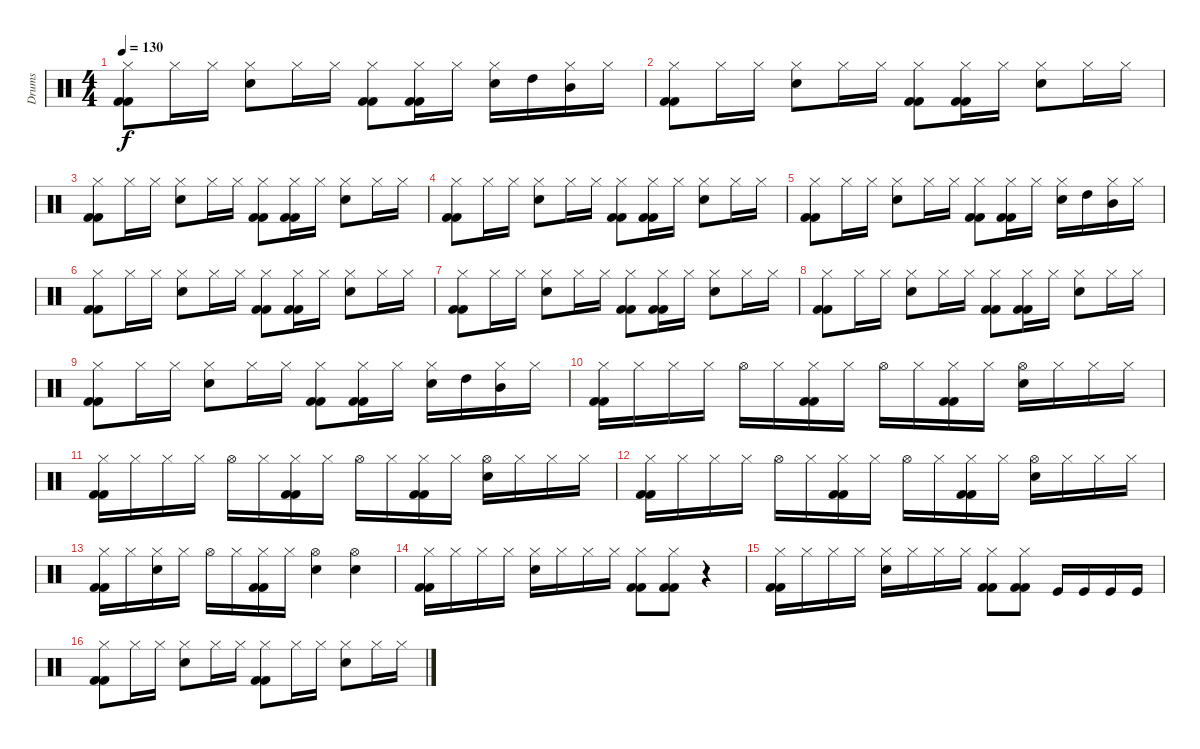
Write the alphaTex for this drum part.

\track ("Drums" "Drums") {instrument percussion}
\staff {score}
\articulation defaults
\ts (4 4)
\tempo 130
\clef neutral
\ks c
("Hi-Hat (closed)" "Kick (hit) 2" "Kick (hit) 2").8{dy f} "Hi-Hat (closed)".16 "Hi-Hat (closed)".16 ("Hi-Hat (closed)" "Electric Snare (hit)").8 "Hi-Hat (closed)".16 "Hi-Hat (closed)".16 ("Hi-Hat (closed)" "Kick (hit) 2" "Kick (hit) 2").8 ("Hi-Hat (closed)" "Kick (hit) 2" "Kick (hit) 2").16 "Hi-Hat (closed)".16 ("Hi-Hat (closed)" "Electric Snare (hit)").16 "High Tom (hit)".16 ("Hi-Hat (closed)" "Mid Tom (hit)").16 "Hi-Hat (closed)".16 |
("Hi-Hat (closed)" "Kick (hit) 2" "Kick (hit) 2").8 "Hi-Hat (closed)".16 "Hi-Hat (closed)".16 ("Hi-Hat (closed)" "Electric Snare (hit)").8 "Hi-Hat (closed)".16 "Hi-Hat (closed)".16 ("Hi-Hat (closed)" "Kick (hit) 2" "Kick (hit) 2").8 ("Hi-Hat (closed)" "Kick (hit) 2" "Kick (hit) 2").16 "Hi-Hat (closed)".16 ("Hi-Hat (closed)" "Electric Snare (hit)").8 "Hi-Hat (closed)".16 "Hi-Hat (closed)".16 |
("Hi-Hat (closed)" "Kick (hit) 2" "Kick (hit) 2").8 "Hi-Hat (closed)".16 "Hi-Hat (closed)".16 ("Hi-Hat (closed)" "Electric Snare (hit)").8 "Hi-Hat (closed)".16 "Hi-Hat (closed)".16 ("Hi-Hat (closed)" "Kick (hit) 2" "Kick (hit) 2").8 ("Hi-Hat (closed)" "Kick (hit) 2" "Kick (hit) 2").16 "Hi-Hat (closed)".16 ("Hi-Hat (closed)" "Electric Snare (hit)").8 "Hi-Hat (closed)".16 "Hi-Hat (closed)".16 |
("Hi-Hat (closed)" "Kick (hit) 2" "Kick (hit) 2").8 "Hi-Hat (closed)".16 "Hi-Hat (closed)".16 ("Hi-Hat (closed)" "Electric Snare (hit)").8 "Hi-Hat (closed)".16 "Hi-Hat (closed)".16 ("Hi-Hat (closed)" "Kick (hit) 2" "Kick (hit) 2").8 ("Hi-Hat (closed)" "Kick (hit) 2" "Kick (hit) 2").16 "Hi-Hat (closed)".16 ("Hi-Hat (closed)" "Electric Snare (hit)").8 "Hi-Hat (closed)".16 "Hi-Hat (closed)".16 |
("Hi-Hat (closed)" "Kick (hit) 2" "Kick (hit) 2").8 "Hi-Hat (closed)".16 "Hi-Hat (closed)".16 ("Hi-Hat (closed)" "Electric Snare (hit)").8 "Hi-Hat (closed)".16 "Hi-Hat (closed)".16 ("Hi-Hat (closed)" "Kick (hit) 2" "Kick (hit) 2").8 ("Hi-Hat (closed)" "Kick (hit) 2" "Kick (hit) 2").16 "Hi-Hat (closed)".16 ("Hi-Hat (closed)" "Electric Snare (hit)").16 "High Tom (hit)".16 ("Hi-Hat (closed)" "Mid Tom (hit)").16 "Hi-Hat (closed)".16 |
("Hi-Hat (closed)" "Kick (hit) 2" "Kick (hit) 2").8 "Hi-Hat (closed)".16 "Hi-Hat (closed)".16 ("Hi-Hat (closed)" "Electric Snare (hit)").8 "Hi-Hat (closed)".16 "Hi-Hat (closed)".16 ("Hi-Hat (closed)" "Kick (hit) 2" "Kick (hit) 2").8 ("Hi-Hat (closed)" "Kick (hit) 2" "Kick (hit) 2").16 "Hi-Hat (closed)".16 ("Hi-Hat (closed)" "Electric Snare (hit)").8 "Hi-Hat (closed)".16 "Hi-Hat (closed)".16 |
("Hi-Hat (closed)" "Kick (hit) 2" "Kick (hit) 2").8 "Hi-Hat (closed)".16 "Hi-Hat (closed)".16 ("Hi-Hat (closed)" "Electric Snare (hit)").8 "Hi-Hat (closed)".16 "Hi-Hat (closed)".16 ("Hi-Hat (closed)" "Kick (hit) 2" "Kick (hit) 2").8 ("Hi-Hat (closed)" "Kick (hit) 2" "Kick (hit) 2").16 "Hi-Hat (closed)".16 ("Hi-Hat (closed)" "Electric Snare (hit)").8 "Hi-Hat (closed)".16 "Hi-Hat (closed)".16 |
("Hi-Hat (closed)" "Kick (hit) 2" "Kick (hit) 2").8 "Hi-Hat (closed)".16 "Hi-Hat (closed)".16 ("Hi-Hat (closed)" "Electric Snare (hit)").8 "Hi-Hat (closed)".16 "Hi-Hat (closed)".16 ("Hi-Hat (closed)" "Kick (hit) 2" "Kick (hit) 2").8 ("Hi-Hat (closed)" "Kick (hit) 2" "Kick (hit) 2").16 "Hi-Hat (closed)".16 ("Hi-Hat (closed)" "Electric Snare (hit)").8 "Hi-Hat (closed)".16 "Hi-Hat (closed)".16 |
("Hi-Hat (closed)" "Kick (hit) 2" "Kick (hit) 2").8 "Hi-Hat (closed)".16 "Hi-Hat (closed)".16 ("Hi-Hat (closed)" "Electric Snare (hit)").8 "Hi-Hat (closed)".16 "Hi-Hat (closed)".16 ("Hi-Hat (closed)" "Kick (hit) 2" "Kick (hit) 2").8 ("Hi-Hat (closed)" "Kick (hit) 2" "Kick (hit) 2").16 "Hi-Hat (closed)".16 ("Hi-Hat (closed)" "Electric Snare (hit)").16 "High Tom (hit)".16 ("Hi-Hat (closed)" "Mid Tom (hit)").16 "Hi-Hat (closed)".16 |
("Hi-Hat (closed)" "Kick (hit) 2" "Kick (hit) 2").16 "Hi-Hat (closed)".16 "Hi-Hat (closed)".16 "Hi-Hat (closed)".16 "Hi-Hat (open)".16 "Hi-Hat (closed)".16 ("Hi-Hat (closed)" "Kick (hit) 2" "Kick (hit) 2").16 "Hi-Hat (closed)".16 "Hi-Hat (open)".16 "Hi-Hat (closed)".16 ("Hi-Hat (closed)" "Kick (hit) 2" "Kick (hit) 2").16 "Hi-Hat (closed)".16 ("Hi-Hat (open)" "Electric Snare (hit)").16 "Hi-Hat (closed)".16 "Hi-Hat (closed)".16 "Hi-Hat (closed)".16 |
("Hi-Hat (closed)" "Kick (hit) 2" "Kick (hit) 2").16 "Hi-Hat (closed)".16 "Hi-Hat (closed)".16 "Hi-Hat (closed)".16 "Hi-Hat (open)".16 "Hi-Hat (closed)".16 ("Hi-Hat (closed)" "Kick (hit) 2" "Kick (hit) 2").16 "Hi-Hat (closed)".16 "Hi-Hat (open)".16 "Hi-Hat (closed)".16 ("Hi-Hat (closed)" "Kick (hit) 2" "Kick (hit) 2").16 "Hi-Hat (closed)".16 ("Hi-Hat (open)" "Electric Snare (hit)").16 "Hi-Hat (closed)".16 "Hi-Hat (closed)".16 "Hi-Hat (closed)".16 |
("Hi-Hat (closed)" "Kick (hit) 2" "Kick (hit) 2").16 "Hi-Hat (closed)".16 "Hi-Hat (closed)".16 "Hi-Hat (closed)".16 "Hi-Hat (open)".16 "Hi-Hat (closed)".16 ("Hi-Hat (closed)" "Kick (hit) 2" "Kick (hit) 2").16 "Hi-Hat (closed)".16 "Hi-Hat (open)".16 "Hi-Hat (closed)".16 ("Hi-Hat (closed)" "Kick (hit) 2" "Kick (hit) 2").16 "Hi-Hat (closed)".16 ("Hi-Hat (open)" "Electric Snare (hit)").16 "Hi-Hat (closed)".16 "Hi-Hat (closed)".16 "Hi-Hat (closed)".16 |
("Hi-Hat (closed)" "Kick (hit) 2" "Kick (hit) 2").16 "Hi-Hat (closed)".16 ("Hi-Hat (closed)" "Electric Snare (hit)").16 "Hi-Hat (closed)".16 "Hi-Hat (open)".16 "Hi-Hat (closed)".16 ("Hi-Hat (closed)" "Kick (hit) 2" "Kick (hit) 2").16 "Hi-Hat (closed)".16 ("Hi-Hat (open)" "Electric Snare (hit)").4 ("Hi-Hat (open)" "Electric Snare (hit)").4 |
("Hi-Hat (closed)" "Kick (hit) 2" "Kick (hit) 2").16 "Hi-Hat (closed)".16 "Hi-Hat (closed)".16 "Hi-Hat (closed)".16 ("Hi-Hat (closed)" "Electric Snare (hit)").16 "Hi-Hat (closed)".16 "Hi-Hat (closed)".16 "Hi-Hat (closed)".16 ("Hi-Hat (closed)" "Kick (hit) 2" "Kick (hit) 2").8 ("Hi-Hat (closed)" "Kick (hit) 2" "Kick (hit) 2").8 r.4 |
("Hi-Hat (closed)" "Kick (hit) 2" "Kick (hit) 2").16 "Hi-Hat (closed)".16 "Hi-Hat (closed)".16 "Hi-Hat (closed)".16 ("Hi-Hat (closed)" "Electric Snare (hit)").16 "Hi-Hat (closed)".16 "Hi-Hat (closed)".16 "Hi-Hat (closed)".16 ("Hi-Hat (closed)" "Kick (hit) 2" "Kick (hit) 2").8 ("Hi-Hat (closed)" "Kick (hit) 2" "Kick (hit) 2").8 "Kick (hit)".16 "Kick (hit)".16 "Kick (hit)".16 "Kick (hit)".16 |
("Hi-Hat (closed)" "Kick (hit) 2" "Kick (hit) 2").8 "Hi-Hat (closed)".16 "Hi-Hat (closed)".16 ("Hi-Hat (closed)" "Electric Snare (hit)").8 "Hi-Hat (closed)".16 "Hi-Hat (closed)".16 ("Hi-Hat (closed)" "Kick (hit) 2" "Kick (hit) 2").8 "Hi-Hat (closed)".16 "Hi-Hat (closed)".16 ("Hi-Hat (closed)" "Electric Snare (hit)").8 "Hi-Hat (closed)".16 "Hi-Hat (closed)".16
